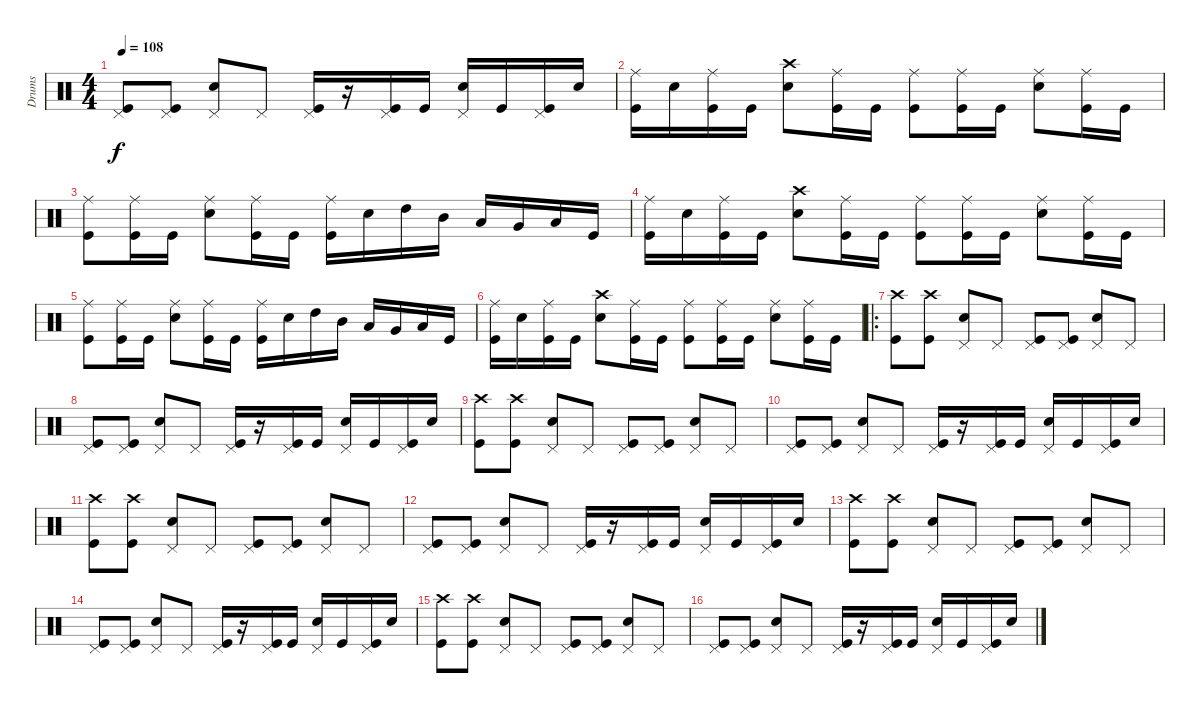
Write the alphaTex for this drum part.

\track ("Drums" "Drums") {instrument percussion}
\staff {score}
\articulation defaults
\ts (4 4)
\tempo 108
\clef neutral
\ks c
("Pedal Hi-Hat (hit)" "Kick (hit)").8{dy f} ("Pedal Hi-Hat (hit)" "Kick (hit)").8 ("Pedal Hi-Hat (hit)" "Electric Snare (hit)").8 "Pedal Hi-Hat (hit)".8 ("Pedal Hi-Hat (hit)" "Kick (hit)").16 r.16 ("Pedal Hi-Hat (hit)" "Kick (hit)").16 "Kick (hit)".16 ("Pedal Hi-Hat (hit)" "Electric Snare (hit)").16 "Kick (hit)".16 ("Pedal Hi-Hat (hit)" "Kick (hit)").16 "Electric Snare (hit)".16 |
("Ride (middle)" "Kick (hit)").16 "Electric Snare (hit)".16 ("Ride (middle)" "Kick (hit)").16 "Kick (hit)".16 ("Crash high (hit)" "Electric Snare (hit)").8 ("Ride (middle)" "Kick (hit)").16 "Kick (hit)".16 ("Ride (middle)" "Kick (hit)").8 ("Ride (middle)" "Kick (hit)").16 "Kick (hit)".16 ("Ride (middle)" "Electric Snare (hit)").8 ("Ride (middle)" "Kick (hit)").16 "Kick (hit)".16 |
("Ride (middle)" "Kick (hit)").8 ("Ride (middle)" "Kick (hit)").16 "Kick (hit)".16 ("Ride (middle)" "Electric Snare (hit)").8 ("Ride (middle)" "Kick (hit)").16 "Kick (hit)".16 ("Ride (middle)" "Kick (hit)").16 "Electric Snare (hit)".16 "High Tom (hit)".16 "Mid Tom (hit)".16 "Low Tom (hit)".16 "Very Low Tom (hit)".16 "Low Floor Tom (hit)".16 "Kick (hit)".16 |
("Ride (middle)" "Kick (hit)").16 "Electric Snare (hit)".16 ("Ride (middle)" "Kick (hit)").16 "Kick (hit)".16 ("Crash high (hit)" "Electric Snare (hit)").8 ("Ride (middle)" "Kick (hit)").16 "Kick (hit)".16 ("Ride (middle)" "Kick (hit)").8 ("Ride (middle)" "Kick (hit)").16 "Kick (hit)".16 ("Ride (middle)" "Electric Snare (hit)").8 ("Ride (middle)" "Kick (hit)").16 "Kick (hit)".16 |
("Ride (middle)" "Kick (hit)").8 ("Ride (middle)" "Kick (hit)").16 "Kick (hit)".16 ("Ride (middle)" "Electric Snare (hit)").8 ("Ride (middle)" "Kick (hit)").16 "Kick (hit)".16 ("Ride (middle)" "Kick (hit)").16 "Electric Snare (hit)".16 "High Tom (hit)".16 "Mid Tom (hit)".16 "Low Tom (hit)".16 "Very Low Tom (hit)".16 "Low Floor Tom (hit)".16 "Kick (hit)".16 |
("Ride (middle)" "Kick (hit)").16 "Electric Snare (hit)".16 ("Ride (middle)" "Kick (hit)").16 "Kick (hit)".16 ("Crash high (hit)" "Electric Snare (hit)").8 ("Ride (middle)" "Kick (hit)").16 "Kick (hit)".16 ("Ride (middle)" "Kick (hit)").8 ("Ride (middle)" "Kick (hit)").16 "Kick (hit)".16 ("Ride (middle)" "Electric Snare (hit)").8 ("Ride (middle)" "Kick (hit)").16 "Kick (hit)".16 |
\ro
("Crash high (hit)" "Kick (hit)").8 ("Crash high (hit)" "Kick (hit)").8 ("Pedal Hi-Hat (hit)" "Electric Snare (hit)").8 "Pedal Hi-Hat (hit)".8 ("Pedal Hi-Hat (hit)" "Kick (hit)").8 ("Pedal Hi-Hat (hit)" "Kick (hit)").8 ("Pedal Hi-Hat (hit)" "Electric Snare (hit)").8 "Pedal Hi-Hat (hit)".8 |
("Pedal Hi-Hat (hit)" "Kick (hit)").8 ("Pedal Hi-Hat (hit)" "Kick (hit)").8 ("Pedal Hi-Hat (hit)" "Electric Snare (hit)").8 "Pedal Hi-Hat (hit)".8 ("Pedal Hi-Hat (hit)" "Kick (hit)").16 r.16 ("Pedal Hi-Hat (hit)" "Kick (hit)").16 "Kick (hit)".16 ("Pedal Hi-Hat (hit)" "Electric Snare (hit)").16 "Kick (hit)".16 ("Pedal Hi-Hat (hit)" "Kick (hit)").16 "Electric Snare (hit)".16 |
("Crash high (hit)" "Kick (hit)").8 ("Crash high (hit)" "Kick (hit)").8 ("Pedal Hi-Hat (hit)" "Electric Snare (hit)").8 "Pedal Hi-Hat (hit)".8 ("Pedal Hi-Hat (hit)" "Kick (hit)").8 ("Pedal Hi-Hat (hit)" "Kick (hit)").8 ("Pedal Hi-Hat (hit)" "Electric Snare (hit)").8 "Pedal Hi-Hat (hit)".8 |
("Pedal Hi-Hat (hit)" "Kick (hit)").8 ("Pedal Hi-Hat (hit)" "Kick (hit)").8 ("Pedal Hi-Hat (hit)" "Electric Snare (hit)").8 "Pedal Hi-Hat (hit)".8 ("Pedal Hi-Hat (hit)" "Kick (hit)").16 r.16 ("Pedal Hi-Hat (hit)" "Kick (hit)").16 "Kick (hit)".16 ("Pedal Hi-Hat (hit)" "Electric Snare (hit)").16 "Kick (hit)".16 ("Pedal Hi-Hat (hit)" "Kick (hit)").16 "Electric Snare (hit)".16 |
("Crash high (hit)" "Kick (hit)").8 ("Crash high (hit)" "Kick (hit)").8 ("Pedal Hi-Hat (hit)" "Electric Snare (hit)").8 "Pedal Hi-Hat (hit)".8 ("Pedal Hi-Hat (hit)" "Kick (hit)").8 ("Pedal Hi-Hat (hit)" "Kick (hit)").8 ("Pedal Hi-Hat (hit)" "Electric Snare (hit)").8 "Pedal Hi-Hat (hit)".8 |
("Pedal Hi-Hat (hit)" "Kick (hit)").8 ("Pedal Hi-Hat (hit)" "Kick (hit)").8 ("Pedal Hi-Hat (hit)" "Electric Snare (hit)").8 "Pedal Hi-Hat (hit)".8 ("Pedal Hi-Hat (hit)" "Kick (hit)").16 r.16 ("Pedal Hi-Hat (hit)" "Kick (hit)").16 "Kick (hit)".16 ("Pedal Hi-Hat (hit)" "Electric Snare (hit)").16 "Kick (hit)".16 ("Pedal Hi-Hat (hit)" "Kick (hit)").16 "Electric Snare (hit)".16 |
("Crash high (hit)" "Kick (hit)").8 ("Crash high (hit)" "Kick (hit)").8 ("Pedal Hi-Hat (hit)" "Electric Snare (hit)").8 "Pedal Hi-Hat (hit)".8 ("Pedal Hi-Hat (hit)" "Kick (hit)").8 ("Pedal Hi-Hat (hit)" "Kick (hit)").8 ("Pedal Hi-Hat (hit)" "Electric Snare (hit)").8 "Pedal Hi-Hat (hit)".8 |
("Pedal Hi-Hat (hit)" "Kick (hit)").8 ("Pedal Hi-Hat (hit)" "Kick (hit)").8 ("Pedal Hi-Hat (hit)" "Electric Snare (hit)").8 "Pedal Hi-Hat (hit)".8 ("Pedal Hi-Hat (hit)" "Kick (hit)").16 r.16 ("Pedal Hi-Hat (hit)" "Kick (hit)").16 "Kick (hit)".16 ("Pedal Hi-Hat (hit)" "Electric Snare (hit)").16 "Kick (hit)".16 ("Pedal Hi-Hat (hit)" "Kick (hit)").16 "Electric Snare (hit)".16 |
("Crash high (hit)" "Kick (hit)").8 ("Crash high (hit)" "Kick (hit)").8 ("Pedal Hi-Hat (hit)" "Electric Snare (hit)").8 "Pedal Hi-Hat (hit)".8 ("Pedal Hi-Hat (hit)" "Kick (hit)").8 ("Pedal Hi-Hat (hit)" "Kick (hit)").8 ("Pedal Hi-Hat (hit)" "Electric Snare (hit)").8 "Pedal Hi-Hat (hit)".8 |
("Pedal Hi-Hat (hit)" "Kick (hit)").8 ("Pedal Hi-Hat (hit)" "Kick (hit)").8 ("Pedal Hi-Hat (hit)" "Electric Snare (hit)").8 "Pedal Hi-Hat (hit)".8 ("Pedal Hi-Hat (hit)" "Kick (hit)").16 r.16 ("Pedal Hi-Hat (hit)" "Kick (hit)").16 "Kick (hit)".16 ("Pedal Hi-Hat (hit)" "Electric Snare (hit)").16 "Kick (hit)".16 ("Pedal Hi-Hat (hit)" "Kick (hit)").16 "Electric Snare (hit)".16
